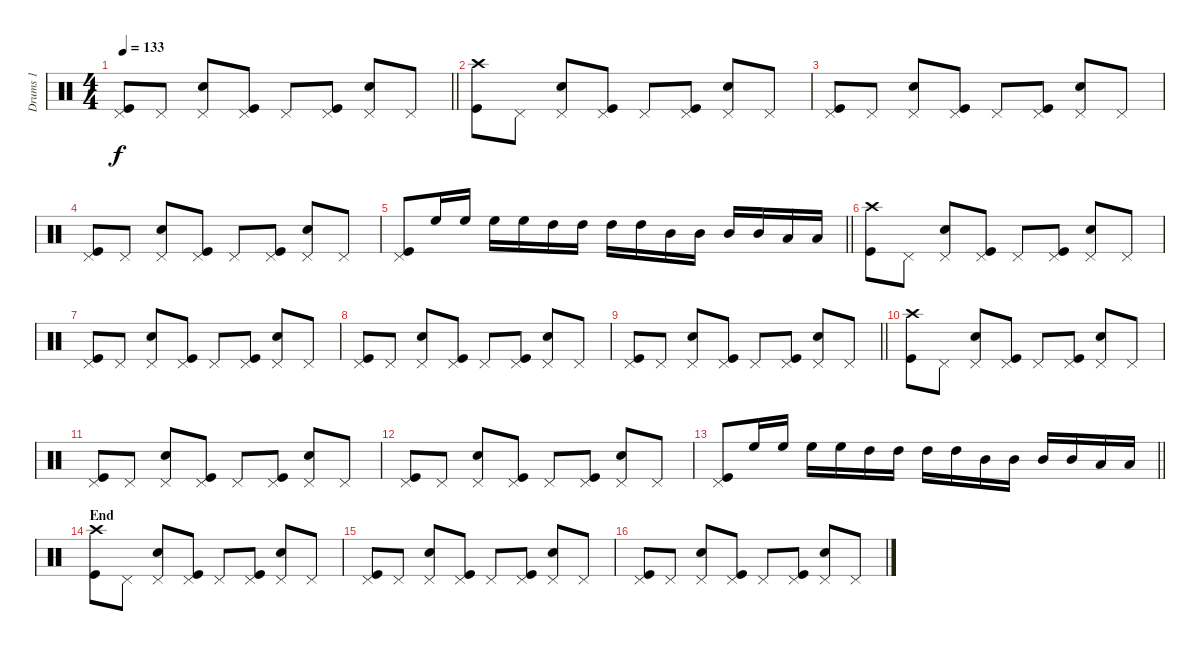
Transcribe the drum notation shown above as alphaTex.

\track ("Drums 1" "Drums 1") {instrument percussion}
\staff {score}
\articulation defaults
\ts (4 4)
\tempo 133
\clef neutral
\barLineRight lightlight
\ks c
("Pedal Hi-Hat (hit)" "Kick (hit)").8{dy f} "Pedal Hi-Hat (hit)".8 ("Pedal Hi-Hat (hit)" "Electric Snare (hit)").8 ("Pedal Hi-Hat (hit)" "Kick (hit)").8 "Pedal Hi-Hat (hit)".8 ("Pedal Hi-Hat (hit)" "Kick (hit)").8 ("Pedal Hi-Hat (hit)" "Electric Snare (hit)").8 "Pedal Hi-Hat (hit)".8 |
("Crash high (hit)" "Kick (hit)").8 "Pedal Hi-Hat (hit)".8 ("Pedal Hi-Hat (hit)" "Electric Snare (hit)").8 ("Pedal Hi-Hat (hit)" "Kick (hit)").8 "Pedal Hi-Hat (hit)".8 ("Pedal Hi-Hat (hit)" "Kick (hit)").8 ("Pedal Hi-Hat (hit)" "Electric Snare (hit)").8 "Pedal Hi-Hat (hit)".8 |
("Pedal Hi-Hat (hit)" "Kick (hit)").8 "Pedal Hi-Hat (hit)".8 ("Pedal Hi-Hat (hit)" "Electric Snare (hit)").8 ("Pedal Hi-Hat (hit)" "Kick (hit)").8 "Pedal Hi-Hat (hit)".8 ("Pedal Hi-Hat (hit)" "Kick (hit)").8 ("Pedal Hi-Hat (hit)" "Electric Snare (hit)").8 "Pedal Hi-Hat (hit)".8 |
("Pedal Hi-Hat (hit)" "Kick (hit)").8 "Pedal Hi-Hat (hit)".8 ("Pedal Hi-Hat (hit)" "Electric Snare (hit)").8 ("Pedal Hi-Hat (hit)" "Kick (hit)").8 "Pedal Hi-Hat (hit)".8 ("Pedal Hi-Hat (hit)" "Kick (hit)").8 ("Pedal Hi-Hat (hit)" "Electric Snare (hit)").8 "Pedal Hi-Hat (hit)".8 |
\barLineRight lightlight
("Pedal Hi-Hat (hit)" "Kick (hit)").8 "High Floor Tom (hit)".16 "High Floor Tom (hit)".16 "High Floor Tom (hit)".16 "High Floor Tom (hit)".16 "High Tom (hit)".16 "High Tom (hit)".16 "High Tom (hit)".16 "High Tom (hit)".16 "Mid Tom (hit)".16 "Mid Tom (hit)".16 "Mid Tom (hit)".16 "Mid Tom (hit)".16 "Low Tom (hit)".16 "Low Tom (hit)".16 |
("Crash high (hit)" "Kick (hit)").8 "Pedal Hi-Hat (hit)".8 ("Pedal Hi-Hat (hit)" "Electric Snare (hit)").8 ("Pedal Hi-Hat (hit)" "Kick (hit)").8 "Pedal Hi-Hat (hit)".8 ("Pedal Hi-Hat (hit)" "Kick (hit)").8 ("Pedal Hi-Hat (hit)" "Electric Snare (hit)").8 "Pedal Hi-Hat (hit)".8 |
("Pedal Hi-Hat (hit)" "Kick (hit)").8 "Pedal Hi-Hat (hit)".8 ("Pedal Hi-Hat (hit)" "Electric Snare (hit)").8 ("Pedal Hi-Hat (hit)" "Kick (hit)").8 "Pedal Hi-Hat (hit)".8 ("Pedal Hi-Hat (hit)" "Kick (hit)").8 ("Pedal Hi-Hat (hit)" "Electric Snare (hit)").8 "Pedal Hi-Hat (hit)".8 |
("Pedal Hi-Hat (hit)" "Kick (hit)").8 "Pedal Hi-Hat (hit)".8 ("Pedal Hi-Hat (hit)" "Electric Snare (hit)").8 ("Pedal Hi-Hat (hit)" "Kick (hit)").8 "Pedal Hi-Hat (hit)".8 ("Pedal Hi-Hat (hit)" "Kick (hit)").8 ("Pedal Hi-Hat (hit)" "Electric Snare (hit)").8 "Pedal Hi-Hat (hit)".8 |
\barLineRight lightlight
("Pedal Hi-Hat (hit)" "Kick (hit)").8 "Pedal Hi-Hat (hit)".8 ("Pedal Hi-Hat (hit)" "Electric Snare (hit)").8 ("Pedal Hi-Hat (hit)" "Kick (hit)").8 "Pedal Hi-Hat (hit)".8 ("Pedal Hi-Hat (hit)" "Kick (hit)").8 ("Pedal Hi-Hat (hit)" "Electric Snare (hit)").8 "Pedal Hi-Hat (hit)".8 |
("Crash high (hit)" "Kick (hit)").8 "Pedal Hi-Hat (hit)".8 ("Pedal Hi-Hat (hit)" "Electric Snare (hit)").8 ("Pedal Hi-Hat (hit)" "Kick (hit)").8 "Pedal Hi-Hat (hit)".8 ("Pedal Hi-Hat (hit)" "Kick (hit)").8 ("Pedal Hi-Hat (hit)" "Electric Snare (hit)").8 "Pedal Hi-Hat (hit)".8 |
("Pedal Hi-Hat (hit)" "Kick (hit)").8 "Pedal Hi-Hat (hit)".8 ("Pedal Hi-Hat (hit)" "Electric Snare (hit)").8 ("Pedal Hi-Hat (hit)" "Kick (hit)").8 "Pedal Hi-Hat (hit)".8 ("Pedal Hi-Hat (hit)" "Kick (hit)").8 ("Pedal Hi-Hat (hit)" "Electric Snare (hit)").8 "Pedal Hi-Hat (hit)".8 |
("Pedal Hi-Hat (hit)" "Kick (hit)").8 "Pedal Hi-Hat (hit)".8 ("Pedal Hi-Hat (hit)" "Electric Snare (hit)").8 ("Pedal Hi-Hat (hit)" "Kick (hit)").8 "Pedal Hi-Hat (hit)".8 ("Pedal Hi-Hat (hit)" "Kick (hit)").8 ("Pedal Hi-Hat (hit)" "Electric Snare (hit)").8 "Pedal Hi-Hat (hit)".8 |
\barLineRight lightlight
("Pedal Hi-Hat (hit)" "Kick (hit)").8 "High Floor Tom (hit)".16 "High Floor Tom (hit)".16 "High Floor Tom (hit)".16 "High Floor Tom (hit)".16 "High Tom (hit)".16 "High Tom (hit)".16 "High Tom (hit)".16 "High Tom (hit)".16 "Mid Tom (hit)".16 "Mid Tom (hit)".16 "Mid Tom (hit)".16 "Mid Tom (hit)".16 "Low Tom (hit)".16 "Low Tom (hit)".16 |
\section ("" "End")
("Crash high (hit)" "Kick (hit)").8 "Pedal Hi-Hat (hit)".8 ("Pedal Hi-Hat (hit)" "Electric Snare (hit)").8 ("Pedal Hi-Hat (hit)" "Kick (hit)").8 "Pedal Hi-Hat (hit)".8 ("Pedal Hi-Hat (hit)" "Kick (hit)").8 ("Pedal Hi-Hat (hit)" "Electric Snare (hit)").8 "Pedal Hi-Hat (hit)".8 |
("Pedal Hi-Hat (hit)" "Kick (hit)").8 "Pedal Hi-Hat (hit)".8 ("Pedal Hi-Hat (hit)" "Electric Snare (hit)").8 ("Pedal Hi-Hat (hit)" "Kick (hit)").8 "Pedal Hi-Hat (hit)".8 ("Pedal Hi-Hat (hit)" "Kick (hit)").8 ("Pedal Hi-Hat (hit)" "Electric Snare (hit)").8 "Pedal Hi-Hat (hit)".8 |
("Pedal Hi-Hat (hit)" "Kick (hit)").8 "Pedal Hi-Hat (hit)".8 ("Pedal Hi-Hat (hit)" "Electric Snare (hit)").8 ("Pedal Hi-Hat (hit)" "Kick (hit)").8 "Pedal Hi-Hat (hit)".8 ("Pedal Hi-Hat (hit)" "Kick (hit)").8 ("Pedal Hi-Hat (hit)" "Electric Snare (hit)").8 "Pedal Hi-Hat (hit)".8
